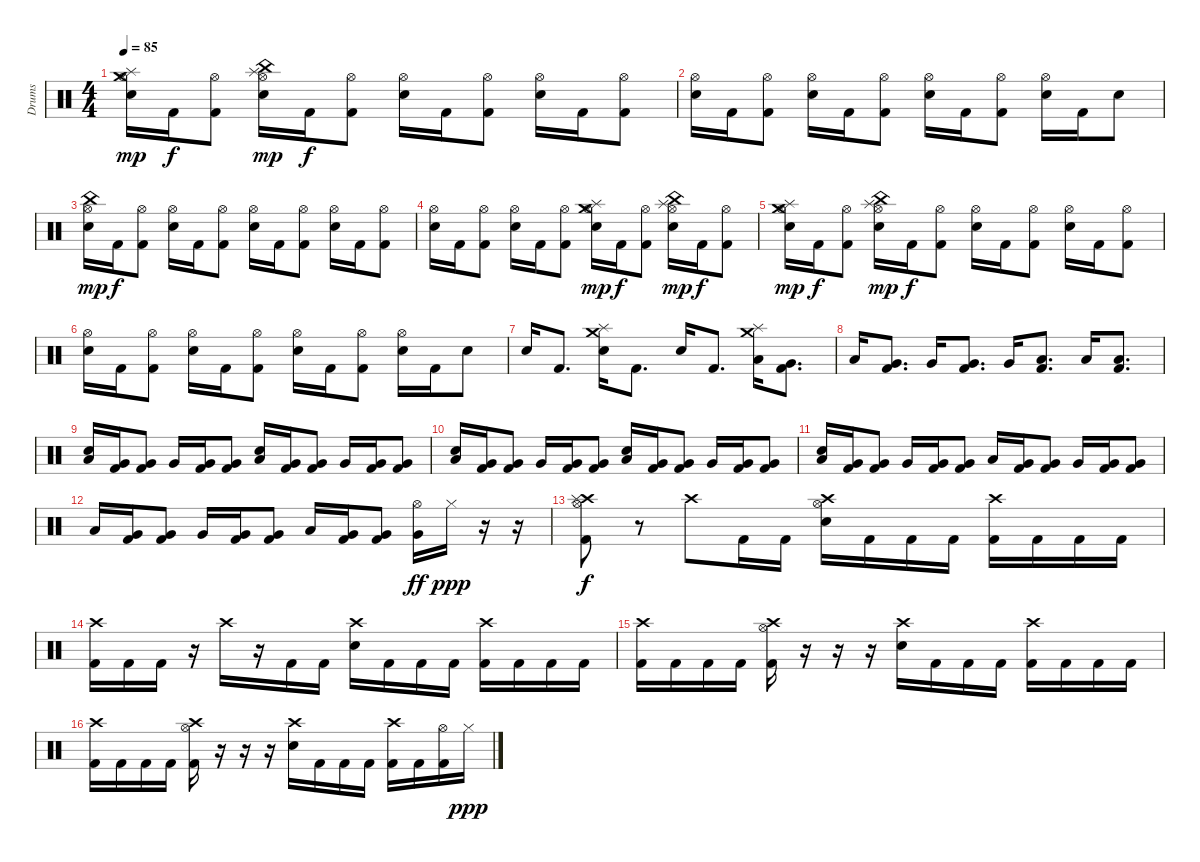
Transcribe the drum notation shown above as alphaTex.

\track ("Drums" "Drums") {instrument percussion}
\staff {score}
\articulation defaults
\ts (4 4)
\tempo 85
\clef neutral
\ks c
("Splash (hit)" "Hi-Hat (open)" "Crash medium (hit)" "Electric Snare (hit)").16{dy mp} "Kick (hit) 2".16{dy f} ("Hi-Hat (open)" "Kick (hit) 2").8 ("Splash (hit)" "Hi-Hat (open)" "China (hit)" "Electric Snare (hit)").16{dy mp} "Kick (hit) 2".16{dy f} ("Hi-Hat (open)" "Kick (hit) 2").8 ("Hi-Hat (open)" "Electric Snare (hit)").16 "Kick (hit) 2".16 ("Hi-Hat (open)" "Kick (hit) 2").8 ("Hi-Hat (open)" "Electric Snare (hit)").16 "Kick (hit) 2".16 ("Hi-Hat (open)" "Kick (hit) 2").8 |
("Hi-Hat (open)" "Electric Snare (hit)").16 "Kick (hit) 2".16 ("Hi-Hat (open)" "Kick (hit) 2").8 ("Hi-Hat (open)" "Electric Snare (hit)").16 "Kick (hit) 2".16 ("Hi-Hat (open)" "Kick (hit) 2").8 ("Hi-Hat (open)" "Electric Snare (hit)").16 "Kick (hit) 2".16 ("Hi-Hat (open)" "Kick (hit) 2").8 ("Hi-Hat (open)" "Electric Snare (hit)").16 "Kick (hit) 2".16 "Electric Snare (hit)".8 |
("Hi-Hat (open)" "China (hit)" "Electric Snare (hit)").16{dy mp} "Kick (hit) 2".16{dy f} ("Hi-Hat (open)" "Kick (hit) 2").8 ("Hi-Hat (open)" "Electric Snare (hit)").16 "Kick (hit) 2".16 ("Hi-Hat (open)" "Kick (hit) 2").8 ("Hi-Hat (open)" "Electric Snare (hit)").16 "Kick (hit) 2".16 ("Hi-Hat (open)" "Kick (hit) 2").8 ("Hi-Hat (open)" "Electric Snare (hit)").16 "Kick (hit) 2".16 ("Hi-Hat (open)" "Kick (hit) 2").8 |
("Hi-Hat (open)" "Electric Snare (hit)").16 "Kick (hit) 2".16 ("Hi-Hat (open)" "Kick (hit) 2").8 ("Hi-Hat (open)" "Electric Snare (hit)").16 "Kick (hit) 2".16 ("Hi-Hat (open)" "Kick (hit) 2").8 ("Hi-Hat (open)" "Splash (hit)" "Crash medium (hit)" "Electric Snare (hit)").16{dy mp} "Kick (hit) 2".16{dy f} ("Hi-Hat (open)" "Kick (hit) 2").8 ("Hi-Hat (open)" "Splash (hit)" "China (hit)" "Electric Snare (hit)").16{dy mp} "Kick (hit) 2".16{dy f} ("Hi-Hat (open)" "Kick (hit) 2").8 |
("Hi-Hat (open)" "Splash (hit)" "Crash medium (hit)" "Electric Snare (hit)").16{dy mp} "Kick (hit) 2".16{dy f} ("Hi-Hat (open)" "Kick (hit) 2").8 ("Hi-Hat (open)" "Splash (hit)" "China (hit)" "Electric Snare (hit)").16{dy mp} "Kick (hit) 2".16{dy f} ("Hi-Hat (open)" "Kick (hit) 2").8 ("Hi-Hat (open)" "Electric Snare (hit)").16 "Kick (hit) 2".16 ("Hi-Hat (open)" "Kick (hit) 2").8 ("Hi-Hat (open)" "Electric Snare (hit)").16 "Kick (hit) 2".16 ("Hi-Hat (open)" "Kick (hit) 2").8 |
("Hi-Hat (open)" "Electric Snare (hit)").16 "Kick (hit) 2".16 ("Hi-Hat (open)" "Kick (hit) 2").8 ("Hi-Hat (open)" "Electric Snare (hit)").16 "Kick (hit) 2".16 ("Hi-Hat (open)" "Kick (hit) 2").8 ("Hi-Hat (open)" "Electric Snare (hit)").16 "Kick (hit) 2".16 ("Hi-Hat (open)" "Kick (hit) 2").8 ("Hi-Hat (open)" "Electric Snare (hit)").16 "Kick (hit) 2".16 "Electric Snare (hit)".8 |
"Electric Snare (hit)".16 "Kick (hit) 2".8{d} ("Splash (hit)" "Crash medium (hit)" "Electric Snare (hit)").16 "Kick (hit) 2".8{d} "Electric Snare (hit)".16 "Kick (hit) 2".8{d} ("Splash (hit)" "Crash medium (hit)" "Low Tom (hit)").16 ("Kick (hit) 2" "Very Low Tom (hit)").8{d} |
"Low Tom (hit)".16 ("Kick (hit) 2" "Very Low Tom (hit)").8{d} "Very Low Tom (hit)".16 ("Kick (hit) 2" "Very Low Tom (hit)").8{d} "Very Low Tom (hit)".16 ("Kick (hit) 2" "Low Floor Tom (hit)").8{d} "Low Floor Tom (hit)".16 ("Kick (hit) 2" "Low Floor Tom (hit)").8{d} |
("Electric Snare (hit)" "Low Tom (hit)").16 ("Kick (hit) 2" "Very Low Tom (hit)").16 ("Kick (hit) 2" "Very Low Tom (hit)").8 "Very Low Tom (hit)".16 ("Kick (hit) 2" "Very Low Tom (hit)").16 ("Kick (hit) 2" "Very Low Tom (hit)").8 ("Electric Snare (hit)" "Low Tom (hit)").16 ("Kick (hit) 2" "Very Low Tom (hit)").16 ("Kick (hit) 2" "Very Low Tom (hit)").8 "Very Low Tom (hit)".16 ("Kick (hit) 2" "Very Low Tom (hit)").16 ("Kick (hit) 2" "Very Low Tom (hit)").8 |
("Electric Snare (hit)" "Low Tom (hit)").16 ("Kick (hit) 2" "Very Low Tom (hit)").16 ("Kick (hit) 2" "Very Low Tom (hit)").8 "Very Low Tom (hit)".16 ("Kick (hit) 2" "Very Low Tom (hit)").16 ("Kick (hit) 2" "Very Low Tom (hit)").8 ("Electric Snare (hit)" "Low Tom (hit)").16 ("Kick (hit) 2" "Very Low Tom (hit)").16 ("Kick (hit) 2" "Very Low Tom (hit)").8 "Very Low Tom (hit)".16 ("Kick (hit) 2" "Very Low Tom (hit)").16 ("Kick (hit) 2" "Very Low Tom (hit)").8 |
("Electric Snare (hit)" "Low Tom (hit)").16 ("Kick (hit) 2" "Very Low Tom (hit)").16 ("Kick (hit) 2" "Very Low Tom (hit)").8 "Very Low Tom (hit)".16 ("Kick (hit) 2" "Very Low Tom (hit)").16 ("Kick (hit) 2" "Very Low Tom (hit)").8 "Low Tom (hit)".16 ("Kick (hit) 2" "Very Low Tom (hit)").16 ("Kick (hit) 2" "Very Low Tom (hit)").8 "Very Low Tom (hit)".16 ("Kick (hit) 2" "Very Low Tom (hit)").16 ("Kick (hit) 2" "Very Low Tom (hit)").8 |
"Low Tom (hit)".16 ("Kick (hit) 2" "Very Low Tom (hit)").16 ("Kick (hit) 2" "Very Low Tom (hit)").8 "Very Low Tom (hit)".16 ("Kick (hit) 2" "Very Low Tom (hit)").16 ("Kick (hit) 2" "Very Low Tom (hit)").8 "Low Tom (hit)".16 ("Kick (hit) 2" "Very Low Tom (hit)").16 ("Kick (hit) 2" "Very Low Tom (hit)").8 ("Hi-Hat (open)" "Very Low Tom (hit)").16{dy ff} "Hi-Hat (closed)".16{dy ppp} r.16 r.16 |
("Crash high (hit)" "Hi-Hat (open)" "Splash (hit)" "Kick (hit) 2").8{dy f} r.8 "Crash high (hit)".8 "Kick (hit) 2".16 "Kick (hit) 2".16 ("Crash high (hit)" "Hi-Hat (open)" "Electric Snare (hit)").16 "Kick (hit) 2".16 "Kick (hit) 2".16 "Kick (hit) 2".16 ("Crash high (hit)" "Kick (hit) 2").16 "Kick (hit) 2".16 "Kick (hit) 2".16 "Kick (hit) 2".16 |
("Crash high (hit)" "Kick (hit) 2").16 "Kick (hit) 2".16 "Kick (hit) 2".16 r.16 "Crash high (hit)".16 r.16 "Kick (hit) 2".16 "Kick (hit) 2".16 ("Crash high (hit)" "Electric Snare (hit)").16 "Kick (hit) 2".16 "Kick (hit) 2".16 "Kick (hit) 2".16 ("Crash high (hit)" "Kick (hit) 2").16 "Kick (hit) 2".16 "Kick (hit) 2".16 "Kick (hit) 2".16 |
("Crash high (hit)" "Kick (hit) 2").16 "Kick (hit) 2".16 "Kick (hit) 2".16 "Kick (hit) 2".16 ("Crash high (hit)" "Hi-Hat (open)" "Kick (hit) 2").16 r.16 r.16 r.16 ("Crash high (hit)" "Electric Snare (hit)").16 "Kick (hit) 2".16 "Kick (hit) 2".16 "Kick (hit) 2".16 ("Crash high (hit)" "Kick (hit) 2").16 "Kick (hit) 2".16 "Kick (hit) 2".16 "Kick (hit) 2".16 |
("Crash high (hit)" "Kick (hit) 2").16 "Kick (hit) 2".16 "Kick (hit) 2".16 "Kick (hit) 2".16 ("Crash high (hit)" "Hi-Hat (open)" "Kick (hit) 2").16 r.16 r.16 r.16 ("Crash high (hit)" "Electric Snare (hit)").16 "Kick (hit) 2".16 "Kick (hit) 2".16 "Kick (hit) 2".16 ("Crash high (hit)" "Kick (hit) 2").16 "Kick (hit) 2".16 ("Hi-Hat (open)" "Kick (hit) 2").16 "Hi-Hat (closed)".16{dy ppp}
